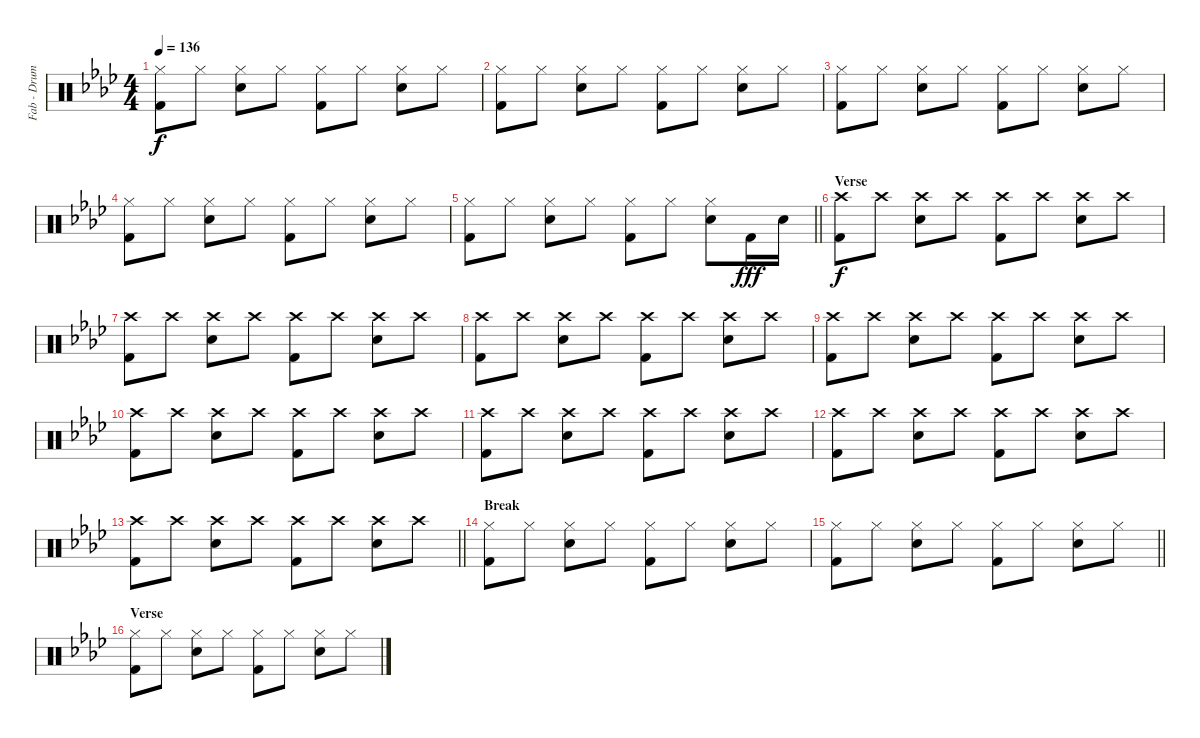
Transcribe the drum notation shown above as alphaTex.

\track ("Fab - Drums MIDI" "Fab - Drum") {instrument percussion}
\staff {score}
\articulation defaults
\ts (4 4)
\tempo 136
\clef neutral
\ks ab
("Hi-Hat (closed)" "Kick (hit) 2").8{dy f} "Hi-Hat (closed)".8 ("Hi-Hat (closed)" "Snare (hit) 2").8 "Hi-Hat (closed)".8 ("Hi-Hat (closed)" "Kick (hit) 2").8 "Hi-Hat (closed)".8 ("Hi-Hat (closed)" "Snare (hit) 2").8 "Hi-Hat (closed)".8 |
("Hi-Hat (closed)" "Kick (hit) 2").8 "Hi-Hat (closed)".8 ("Hi-Hat (closed)" "Snare (hit) 2").8 "Hi-Hat (closed)".8 ("Hi-Hat (closed)" "Kick (hit) 2").8 "Hi-Hat (closed)".8 ("Hi-Hat (closed)" "Snare (hit) 2").8 "Hi-Hat (closed)".8 |
("Hi-Hat (closed)" "Kick (hit) 2").8 "Hi-Hat (closed)".8 ("Hi-Hat (closed)" "Snare (hit) 2").8 "Hi-Hat (closed)".8 ("Hi-Hat (closed)" "Kick (hit) 2").8 "Hi-Hat (closed)".8 ("Hi-Hat (closed)" "Snare (hit) 2").8 "Hi-Hat (closed)".8 |
("Hi-Hat (closed)" "Kick (hit) 2").8 "Hi-Hat (closed)".8 ("Hi-Hat (closed)" "Snare (hit) 2").8 "Hi-Hat (closed)".8 ("Hi-Hat (closed)" "Kick (hit) 2").8 "Hi-Hat (closed)".8 ("Hi-Hat (closed)" "Snare (hit) 2").8 "Hi-Hat (closed)".8 |
\barLineRight lightlight
("Hi-Hat (closed)" "Kick (hit) 2").8 "Hi-Hat (closed)".8 ("Hi-Hat (closed)" "Snare (hit) 2").8 "Hi-Hat (closed)".8 ("Hi-Hat (closed)" "Kick (hit) 2").8 "Hi-Hat (closed)".8 ("Hi-Hat (closed)" "Snare (hit) 2").8 "Kick (hit) 2".16{dy fff} "Snare (hit) 2".16 |
\section ("" "Verse")
("Crash high (hit)" "Kick (hit) 2").8{dy f} "Crash high (hit)".8 ("Crash high (hit)" "Snare (hit) 2").8 "Crash high (hit)".8 ("Crash high (hit)" "Kick (hit) 2").8 "Crash high (hit)".8 ("Crash high (hit)" "Snare (hit) 2").8 "Crash high (hit)".8 |
("Crash high (hit)" "Kick (hit) 2").8 "Crash high (hit)".8 ("Crash high (hit)" "Snare (hit) 2").8 "Crash high (hit)".8 ("Crash high (hit)" "Kick (hit) 2").8 "Crash high (hit)".8 ("Crash high (hit)" "Snare (hit) 2").8 "Crash high (hit)".8 |
("Crash high (hit)" "Kick (hit) 2").8 "Crash high (hit)".8 ("Crash high (hit)" "Snare (hit) 2").8 "Crash high (hit)".8 ("Crash high (hit)" "Kick (hit) 2").8 "Crash high (hit)".8 ("Crash high (hit)" "Snare (hit) 2").8 "Crash high (hit)".8 |
("Crash high (hit)" "Kick (hit) 2").8 "Crash high (hit)".8 ("Crash high (hit)" "Snare (hit) 2").8 "Crash high (hit)".8 ("Crash high (hit)" "Kick (hit) 2").8 "Crash high (hit)".8 ("Crash high (hit)" "Snare (hit) 2").8 "Crash high (hit)".8 |
("Crash high (hit)" "Kick (hit) 2").8 "Crash high (hit)".8 ("Crash high (hit)" "Snare (hit) 2").8 "Crash high (hit)".8 ("Crash high (hit)" "Kick (hit) 2").8 "Crash high (hit)".8 ("Crash high (hit)" "Snare (hit) 2").8 "Crash high (hit)".8 |
("Crash high (hit)" "Kick (hit) 2").8 "Crash high (hit)".8 ("Crash high (hit)" "Snare (hit) 2").8 "Crash high (hit)".8 ("Crash high (hit)" "Kick (hit) 2").8 "Crash high (hit)".8 ("Crash high (hit)" "Snare (hit) 2").8 "Crash high (hit)".8 |
("Crash high (hit)" "Kick (hit) 2").8 "Crash high (hit)".8 ("Crash high (hit)" "Snare (hit) 2").8 "Crash high (hit)".8 ("Crash high (hit)" "Kick (hit) 2").8 "Crash high (hit)".8 ("Crash high (hit)" "Snare (hit) 2").8 "Crash high (hit)".8 |
\barLineRight lightlight
("Crash high (hit)" "Kick (hit) 2").8 "Crash high (hit)".8 ("Crash high (hit)" "Snare (hit) 2").8 "Crash high (hit)".8 ("Crash high (hit)" "Kick (hit) 2").8 "Crash high (hit)".8 ("Crash high (hit)" "Snare (hit) 2").8 "Crash high (hit)".8 |
\section ("" "Break")
("Hi-Hat (closed)" "Kick (hit) 2").8 "Hi-Hat (closed)".8 ("Hi-Hat (closed)" "Snare (hit) 2").8 "Hi-Hat (closed)".8 ("Hi-Hat (closed)" "Kick (hit) 2").8 "Hi-Hat (closed)".8 ("Hi-Hat (closed)" "Snare (hit) 2").8 "Hi-Hat (closed)".8 |
\barLineRight lightlight
("Hi-Hat (closed)" "Kick (hit) 2").8 "Hi-Hat (closed)".8 ("Hi-Hat (closed)" "Snare (hit) 2").8 "Hi-Hat (closed)".8 ("Hi-Hat (closed)" "Kick (hit) 2").8 "Hi-Hat (closed)".8 ("Hi-Hat (closed)" "Snare (hit) 2").8 "Hi-Hat (closed)".8 |
\section ("" "Verse")
("Hi-Hat (closed)" "Kick (hit) 2").8 "Hi-Hat (closed)".8 ("Hi-Hat (closed)" "Snare (hit) 2").8 "Hi-Hat (closed)".8 ("Hi-Hat (closed)" "Kick (hit) 2").8 "Hi-Hat (closed)".8 ("Hi-Hat (closed)" "Snare (hit) 2").8 "Hi-Hat (closed)".8
